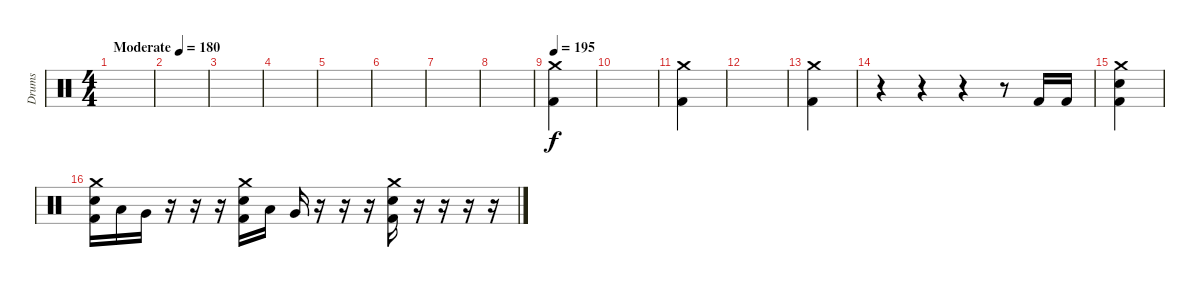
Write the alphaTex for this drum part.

\track ("Drums" "Drums") {instrument percussion}
\staff {score}
\articulation defaults
\ts (4 4)
\tempo (180 "Moderate")
\clef neutral
\ks c
|
|
|
|
|
|
|
|
\tempo 195
("Crash medium (hit)" "Kick (hit) 2").4 |
|
("Crash medium (hit)" "Kick (hit) 2").4 |
|
("Crash medium (hit)" "Kick (hit) 2").4 |
r.4 r.4 r.4 r.8 "Kick (hit) 2".16 "Kick (hit) 2".16 |
("Crash medium (hit)" "Snare (hit) 2" "Kick (hit) 2").4 |
("Snare (hit) 2" "Crash medium (hit)" "Kick (hit) 2").16 "Low Tom (hit)".16 "Very Low Tom (hit)".16 r.16 r.16 r.16 ("Snare (hit) 2" "Crash medium (hit)" "Kick (hit) 2").16 "Low Tom (hit)".16 "Very Low Tom (hit)".16 r.16 r.16 r.16 ("Crash medium (hit)" "Snare (hit) 2" "Kick (hit) 2").16 r.16 r.16 r.16 r.16
